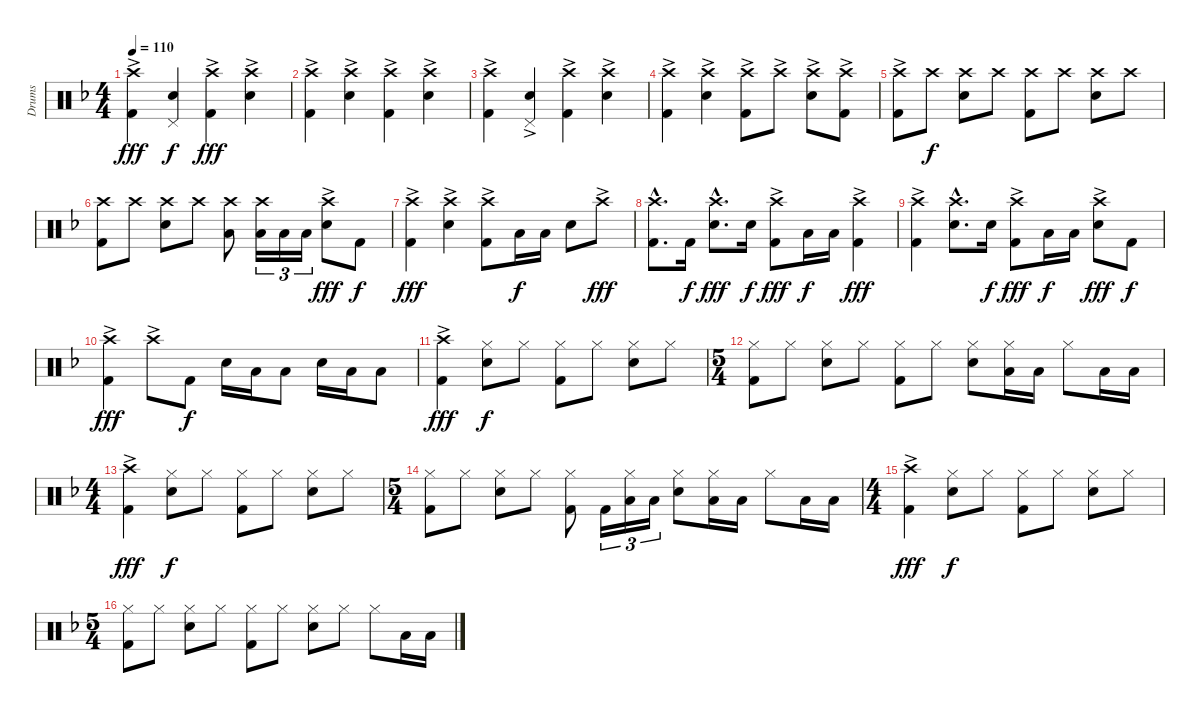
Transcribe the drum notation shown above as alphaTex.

\track ("Drums" "Drums") {instrument percussion}
\staff {score}
\articulation defaults
\ts (4 4)
\tempo 110
\clef neutral
\ks f
("Kick (hit) 2" "Crash high (hit)"{ac}).4{dy fff} ("Snare (hit) 2" "Pedal Hi-Hat (hit)").4{dy f} ("Kick (hit) 2" "Crash high (hit)"{ac}).4{dy fff} ("Snare (hit) 2" "Crash high (hit)"{ac}).4 |
("Kick (hit) 2" "Crash high (hit)"{ac}).4 ("Snare (hit) 2" "Crash high (hit)"{ac}).4 ("Kick (hit) 2" "Crash high (hit)"{ac}).4 ("Snare (hit) 2" "Crash high (hit)"{ac}).4 |
("Kick (hit) 2" "Crash high (hit)"{ac}).4 ("Snare (hit) 2" "Pedal Hi-Hat (hit)"{ac}).4 ("Kick (hit) 2" "Crash high (hit)"{ac}).4 ("Snare (hit) 2" "Crash high (hit)"{ac}).4 |
("Kick (hit) 2" "Crash high (hit)"{ac}).4 ("Snare (hit) 2" "Crash high (hit)"{ac}).4 ("Kick (hit) 2" "Crash high (hit)"{ac}).8 "Crash high (hit)"{ac}.8 ("Snare (hit) 2" "Crash high (hit)"{ac}).8 ("Kick (hit) 2" "Crash high (hit)"{ac}).8 |
("Kick (hit) 2" "Crash high (hit)"{ac}).8 "Crash high (hit)".8{dy f} ("Snare (hit) 2" "Crash high (hit)").8 "Crash high (hit)".8 ("Kick (hit) 2" "Crash high (hit)").8 "Crash high (hit)".8 ("Snare (hit) 2" "Crash high (hit)").8 "Crash high (hit)".8 |
("Kick (hit) 2" "Crash high (hit)").8 "Crash high (hit)".8 ("Snare (hit) 2" "Crash high (hit)").8 "Crash high (hit)".8 ("Low Floor Tom (hit)" "Crash high (hit)").8 ("Low Floor Tom (hit)" "Crash high (hit)").16{tu (3 2)} "Low Tom (hit)".16{tu (3 2)} "Low Tom (hit)".16{tu (3 2)} ("Snare (hit) 2" "Crash high (hit)"{ac}).8{dy fff} "Kick (hit) 2".8{dy f} |
("Kick (hit) 2" "Crash high (hit)"{ac}).4{dy fff} ("Snare (hit) 2" "Crash high (hit)"{ac}).4 ("Kick (hit) 2" "Crash high (hit)"{ac}).8 "Low Floor Tom (hit)".16{dy f} "Low Floor Tom (hit)".16 "Snare (hit) 2".8 "Crash high (hit)"{ac}.8{dy fff} |
("Kick (hit) 2"{hac} "Crash high (hit)"{hac}).8{d} "Kick (hit) 2".16{dy f} ("Snare (hit) 2"{hac} "Crash high (hit)"{hac}).8{d dy fff} "Snare (hit) 2".16{dy f} ("Kick (hit) 2" "Crash high (hit)"{ac}).8{dy fff} "Low Floor Tom (hit)".16{dy f} "Low Floor Tom (hit)".16 ("Kick (hit) 2" "Crash high (hit)"{ac}).4{dy fff} |
("Kick (hit) 2" "Crash high (hit)"{ac}).4 ("Snare (hit) 2"{hac} "Crash high (hit)"{hac}).8{d} "Snare (hit) 2".16{dy f} ("Kick (hit) 2" "Crash high (hit)"{ac}).8{dy fff} "Low Floor Tom (hit)".16{dy f} "Low Floor Tom (hit)".16 ("Snare (hit) 2" "Crash high (hit)"{ac}).8{dy fff} "Kick (hit) 2".8{dy f} |
("Kick (hit) 2" "Crash high (hit)"{ac}).4{dy fff} "Crash high (hit)"{ac}.8 "Kick (hit) 2".8{dy f} "Snare (hit) 2".16 "Low Floor Tom (hit)".16 "Low Floor Tom (hit)".8 "Snare (hit) 2".16 "Low Floor Tom (hit)".16 "Low Floor Tom (hit)".8 |
("Kick (hit) 2" "Crash high (hit)"{ac}).4{dy fff} ("Snare (hit) 2" "Hi-Hat (closed)").8{dy f} "Hi-Hat (closed)".8 ("Kick (hit) 2" "Hi-Hat (closed)").8 "Hi-Hat (closed)".8 ("Snare (hit) 2" "Hi-Hat (closed)").8 "Hi-Hat (closed)".8 |
\ts (5 4)
("Kick (hit) 2" "Hi-Hat (closed)").8 "Hi-Hat (closed)".8 ("Snare (hit) 2" "Hi-Hat (closed)").8 "Hi-Hat (closed)".8 ("Kick (hit) 2" "Hi-Hat (closed)").8 "Hi-Hat (closed)".8 ("Snare (hit) 2" "Hi-Hat (closed)").8 ("Low Floor Tom (hit)" "Hi-Hat (closed)").16 "Low Floor Tom (hit)".16 "Hi-Hat (closed)".8 "Low Floor Tom (hit)".16 "Low Floor Tom (hit)".16 |
\ts (4 4)
("Kick (hit) 2" "Crash high (hit)"{ac}).4{dy fff} ("Snare (hit) 2" "Hi-Hat (closed)").8{dy f} "Hi-Hat (closed)".8 ("Kick (hit) 2" "Hi-Hat (closed)").8 "Hi-Hat (closed)".8 ("Snare (hit) 2" "Hi-Hat (closed)").8 "Hi-Hat (closed)".8 |
\ts (5 4)
("Kick (hit) 2" "Hi-Hat (closed)").8 "Hi-Hat (closed)".8 ("Snare (hit) 2" "Hi-Hat (closed)").8 "Hi-Hat (closed)".8 ("Kick (hit) 2" "Hi-Hat (closed)").8 "Kick (hit) 2".16{tu (3 2)} ("Low Floor Tom (hit)" "Hi-Hat (closed)").16{tu (3 2)} "Low Floor Tom (hit)".16{tu (3 2)} ("Snare (hit) 2" "Hi-Hat (closed)").8 ("Low Floor Tom (hit)" "Hi-Hat (closed)").16 "Low Floor Tom (hit)".16 "Hi-Hat (closed)".8 "Low Floor Tom (hit)".16 "Low Floor Tom (hit)".16 |
\ts (4 4)
("Kick (hit) 2" "Crash high (hit)"{ac}).4{dy fff} ("Snare (hit) 2" "Hi-Hat (closed)").8{dy f} "Hi-Hat (closed)".8 ("Kick (hit) 2" "Hi-Hat (closed)").8 "Hi-Hat (closed)".8 ("Snare (hit) 2" "Hi-Hat (closed)").8 "Hi-Hat (closed)".8 |
\ts (5 4)
("Kick (hit) 2" "Hi-Hat (closed)").8 "Hi-Hat (closed)".8 ("Snare (hit) 2" "Hi-Hat (closed)").8 "Hi-Hat (closed)".8 ("Kick (hit) 2" "Hi-Hat (closed)").8 "Hi-Hat (closed)".8 ("Snare (hit) 2" "Hi-Hat (closed)").8 "Hi-Hat (closed)".8 "Hi-Hat (closed)".8 "Low Floor Tom (hit)".16 "Low Floor Tom (hit)".16
